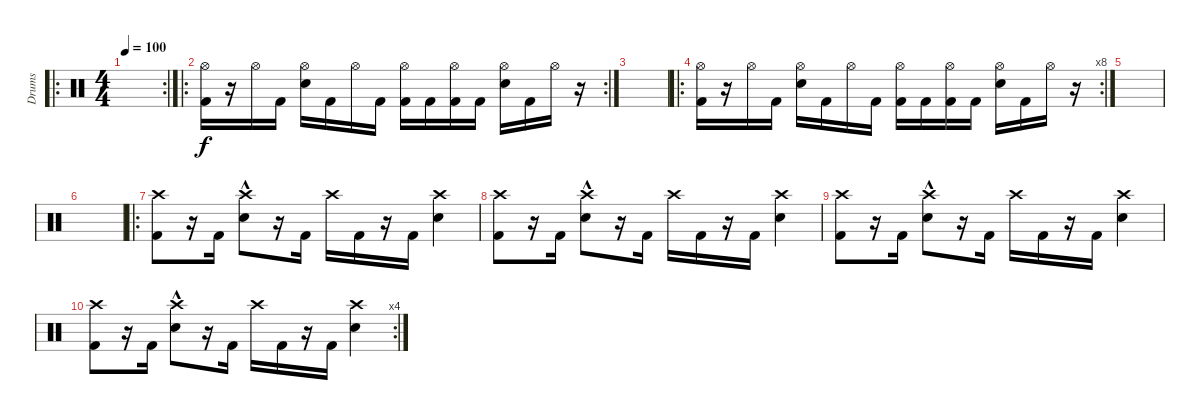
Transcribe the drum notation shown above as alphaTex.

\track ("Drums" "Drums") {instrument percussion}
\staff {score}
\articulation defaults
\ro
\rc 2
\ts (4 4)
\tempo 100
\clef neutral
\ks c
|
\ro
\rc 2
("Kick (hit) 2" "Hi-Hat (open)").16 r.16 "Hi-Hat (open)".16 "Kick (hit) 2".16 ("Snare (hit) 2" "Hi-Hat (open)").16 "Kick (hit) 2".16 "Hi-Hat (open)".16 "Kick (hit) 2".16 ("Kick (hit) 2" "Hi-Hat (open)").16 "Kick (hit) 2".16 ("Kick (hit) 2" "Hi-Hat (open)").16 "Kick (hit) 2".16 ("Snare (hit) 2" "Hi-Hat (open)").16 "Kick (hit) 2".16 "Hi-Hat (open)".16 r.16 |
|
\ro
\rc 8
("Kick (hit) 2" "Hi-Hat (open)").16 r.16 "Hi-Hat (open)".16 "Kick (hit) 2".16 ("Snare (hit) 2" "Hi-Hat (open)").16 "Kick (hit) 2".16 "Hi-Hat (open)".16 "Kick (hit) 2".16 ("Kick (hit) 2" "Hi-Hat (open)").16 "Kick (hit) 2".16 ("Kick (hit) 2" "Hi-Hat (open)").16 "Kick (hit) 2".16 ("Snare (hit) 2" "Hi-Hat (open)").16 "Kick (hit) 2".16 "Hi-Hat (open)".16 r.16 |
|
|
\ro
("Kick (hit) 2" "Crash high (hit)").8 r.16 "Kick (hit) 2".16 ("Snare (hit) 2"{hac} "Crash high (hit)").8 r.16 "Kick (hit) 2".16 "Crash high (hit)".16 "Kick (hit) 2".16 r.16 "Kick (hit) 2".16 ("Snare (hit) 2" "Crash high (hit)").4 |
("Kick (hit) 2" "Crash high (hit)").8 r.16 "Kick (hit) 2".16 ("Snare (hit) 2"{hac} "Crash high (hit)").8 r.16 "Kick (hit) 2".16 "Crash high (hit)".16 "Kick (hit) 2".16 r.16 "Kick (hit) 2".16 ("Snare (hit) 2" "Crash high (hit)").4 |
("Kick (hit) 2" "Crash high (hit)").8 r.16 "Kick (hit) 2".16 ("Snare (hit) 2"{hac} "Crash high (hit)").8 r.16 "Kick (hit) 2".16 "Crash high (hit)".16 "Kick (hit) 2".16 r.16 "Kick (hit) 2".16 ("Snare (hit) 2" "Crash high (hit)").4 |
\rc 4
("Kick (hit) 2" "Crash high (hit)").8 r.16 "Kick (hit) 2".16 ("Snare (hit) 2"{hac} "Crash high (hit)").8 r.16 "Kick (hit) 2".16 "Crash high (hit)".16 "Kick (hit) 2".16 r.16 "Kick (hit) 2".16 ("Snare (hit) 2" "Crash high (hit)").4
